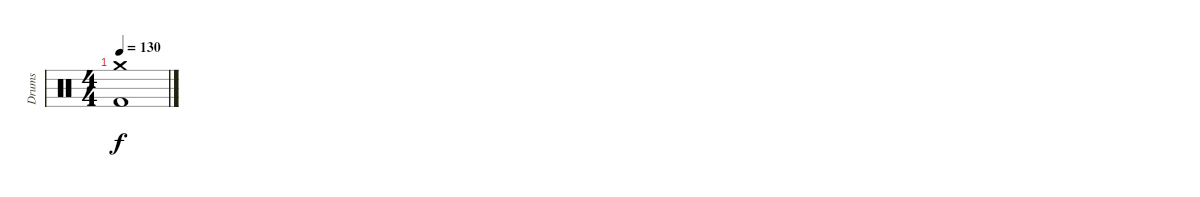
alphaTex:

\track ("Drums" "Drums") {instrument percussion}
\staff {score}
\articulation defaults
\ts (4 4)
\tempo 130
\clef neutral
\ks c
("Crash medium (hit)" "Kick (hit) 2").1{dy f}
